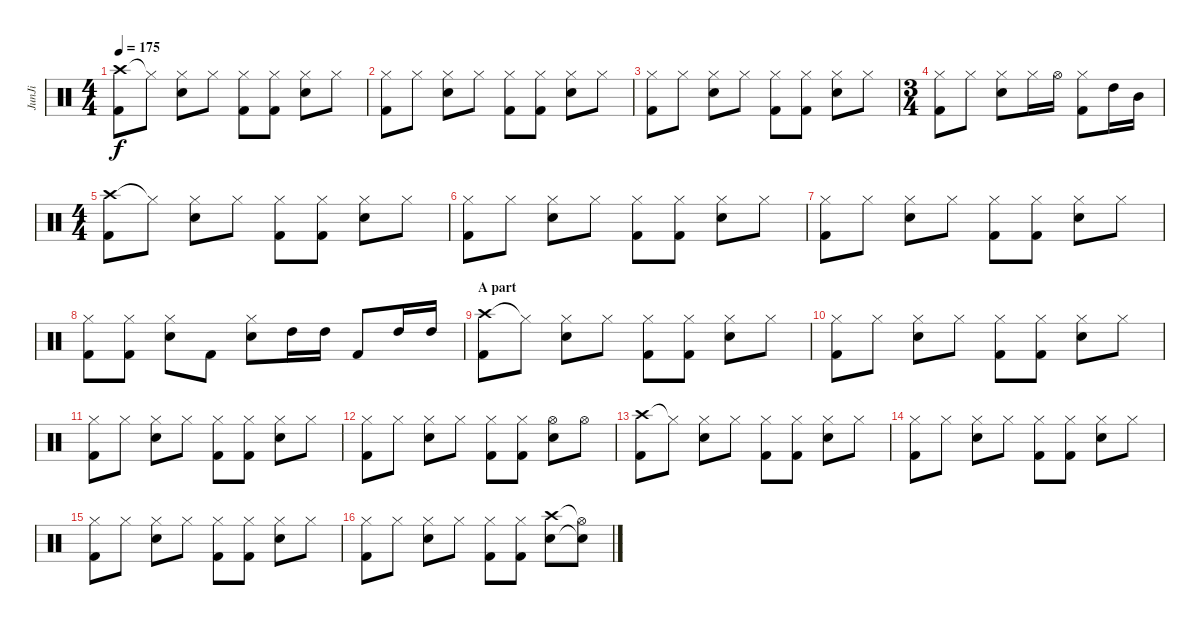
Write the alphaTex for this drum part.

\track ("JunJi" "JunJi") {instrument percussion}
\staff {score}
\articulation defaults
\ts (4 4)
\tempo 175
\clef neutral
\ks c
("Crash high (hit)" "Kick (hit) 2").8{dy f} "Hi-Hat (closed)"{t}.8 ("Hi-Hat (closed)" "Snare (hit) 2").8 "Hi-Hat (closed)".8 ("Hi-Hat (closed)" "Kick (hit) 2").8 ("Hi-Hat (closed)" "Kick (hit) 2").8 ("Hi-Hat (closed)" "Snare (hit) 2").8 "Hi-Hat (closed)".8 |
("Hi-Hat (closed)" "Kick (hit) 2").8 "Hi-Hat (closed)".8 ("Hi-Hat (closed)" "Snare (hit) 2").8 "Hi-Hat (closed)".8 ("Hi-Hat (closed)" "Kick (hit) 2").8 ("Hi-Hat (closed)" "Kick (hit) 2").8 ("Hi-Hat (closed)" "Snare (hit) 2").8 "Hi-Hat (closed)".8 |
("Hi-Hat (closed)" "Kick (hit) 2").8 "Hi-Hat (closed)".8 ("Hi-Hat (closed)" "Snare (hit) 2").8 "Hi-Hat (closed)".8 ("Hi-Hat (closed)" "Kick (hit) 2").8 ("Hi-Hat (closed)" "Kick (hit) 2").8 ("Hi-Hat (closed)" "Snare (hit) 2").8 "Hi-Hat (closed)".8 |
\ts (3 4)
("Hi-Hat (closed)" "Kick (hit) 2").8 "Hi-Hat (closed)".8 ("Hi-Hat (closed)" "Snare (hit) 2").8 "Hi-Hat (closed)".16 "Hi-Hat (open)".16 ("Hi-Hat (closed)" "Kick (hit) 2").8 "High Tom (hit)".16 "Mid Tom (hit)".16 |
\ts (4 4)
("Crash high (hit)" "Kick (hit) 2").8 "Hi-Hat (closed)"{t}.8 ("Hi-Hat (closed)" "Snare (hit) 2").8 "Hi-Hat (closed)".8 ("Hi-Hat (closed)" "Kick (hit) 2").8 ("Hi-Hat (closed)" "Kick (hit) 2").8 ("Hi-Hat (closed)" "Snare (hit) 2").8 "Hi-Hat (closed)".8 |
("Hi-Hat (closed)" "Kick (hit) 2").8 "Hi-Hat (closed)".8 ("Hi-Hat (closed)" "Snare (hit) 2").8 "Hi-Hat (closed)".8 ("Hi-Hat (closed)" "Kick (hit) 2").8 ("Hi-Hat (closed)" "Kick (hit) 2").8 ("Hi-Hat (closed)" "Snare (hit) 2").8 "Hi-Hat (closed)".8 |
("Hi-Hat (closed)" "Kick (hit) 2").8 "Hi-Hat (closed)".8 ("Hi-Hat (closed)" "Snare (hit) 2").8 "Hi-Hat (closed)".8 ("Hi-Hat (closed)" "Kick (hit) 2").8 ("Hi-Hat (closed)" "Kick (hit) 2").8 ("Hi-Hat (closed)" "Snare (hit) 2").8 "Hi-Hat (closed)".8 |
("Hi-Hat (closed)" "Kick (hit) 2").8 ("Hi-Hat (closed)" "Kick (hit) 2").8 ("Hi-Hat (closed)" "Snare (hit) 2").8 "Kick (hit) 2".8 ("Hi-Hat (closed)" "Snare (hit) 2").8 "High Tom (hit)".16 "High Tom (hit)".16 "Kick (hit) 2".8 "High Tom (hit)".16 "High Tom (hit)".16 |
\section ("" "A part")
("Crash high (hit)" "Kick (hit) 2").8 "Hi-Hat (closed)"{t}.8 ("Hi-Hat (closed)" "Snare (hit) 2").8 "Hi-Hat (closed)".8 ("Hi-Hat (closed)" "Kick (hit) 2").8 ("Hi-Hat (closed)" "Kick (hit) 2").8 ("Hi-Hat (closed)" "Snare (hit) 2").8 "Hi-Hat (closed)".8 |
("Hi-Hat (closed)" "Kick (hit) 2").8 "Hi-Hat (closed)".8 ("Hi-Hat (closed)" "Snare (hit) 2").8 "Hi-Hat (closed)".8 ("Hi-Hat (closed)" "Kick (hit) 2").8 ("Hi-Hat (closed)" "Kick (hit) 2").8 ("Hi-Hat (closed)" "Snare (hit) 2").8 "Hi-Hat (closed)".8 |
("Hi-Hat (closed)" "Kick (hit) 2").8 "Hi-Hat (closed)".8 ("Hi-Hat (closed)" "Snare (hit) 2").8 "Hi-Hat (closed)".8 ("Hi-Hat (closed)" "Kick (hit) 2").8 ("Hi-Hat (closed)" "Kick (hit) 2").8 ("Hi-Hat (closed)" "Snare (hit) 2").8 "Hi-Hat (closed)".8 |
("Hi-Hat (closed)" "Kick (hit) 2").8 "Hi-Hat (closed)".8 ("Hi-Hat (closed)" "Snare (hit) 2").8 "Hi-Hat (closed)".8 ("Hi-Hat (closed)" "Kick (hit) 2").8 ("Hi-Hat (closed)" "Kick (hit) 2").8 ("Hi-Hat (open)" "Snare (hit) 2").8 "Hi-Hat (open)".8 |
("Crash high (hit)" "Kick (hit) 2").8 "Hi-Hat (closed)"{t}.8 ("Hi-Hat (closed)" "Snare (hit) 2").8 "Hi-Hat (closed)".8 ("Hi-Hat (closed)" "Kick (hit) 2").8 ("Hi-Hat (closed)" "Kick (hit) 2").8 ("Hi-Hat (closed)" "Snare (hit) 2").8 "Hi-Hat (closed)".8 |
("Hi-Hat (closed)" "Kick (hit) 2").8 "Hi-Hat (closed)".8 ("Hi-Hat (closed)" "Snare (hit) 2").8 "Hi-Hat (closed)".8 ("Hi-Hat (closed)" "Kick (hit) 2").8 ("Hi-Hat (closed)" "Kick (hit) 2").8 ("Hi-Hat (closed)" "Snare (hit) 2").8 "Hi-Hat (closed)".8 |
("Hi-Hat (closed)" "Kick (hit) 2").8 "Hi-Hat (closed)".8 ("Hi-Hat (closed)" "Snare (hit) 2").8 "Hi-Hat (closed)".8 ("Hi-Hat (closed)" "Kick (hit) 2").8 ("Hi-Hat (closed)" "Kick (hit) 2").8 ("Hi-Hat (closed)" "Snare (hit) 2").8 "Hi-Hat (closed)".8 |
("Hi-Hat (closed)" "Kick (hit) 2").8 "Hi-Hat (closed)".8 ("Hi-Hat (closed)" "Snare (hit) 2").8 "Hi-Hat (closed)".8 ("Hi-Hat (closed)" "Kick (hit) 2").8 ("Hi-Hat (closed)" "Kick (hit) 2").8 ("Crash high (hit)" "Snare (hit) 2").8 ("Hi-Hat (open)"{t} "Snare (hit)"{t}).8
